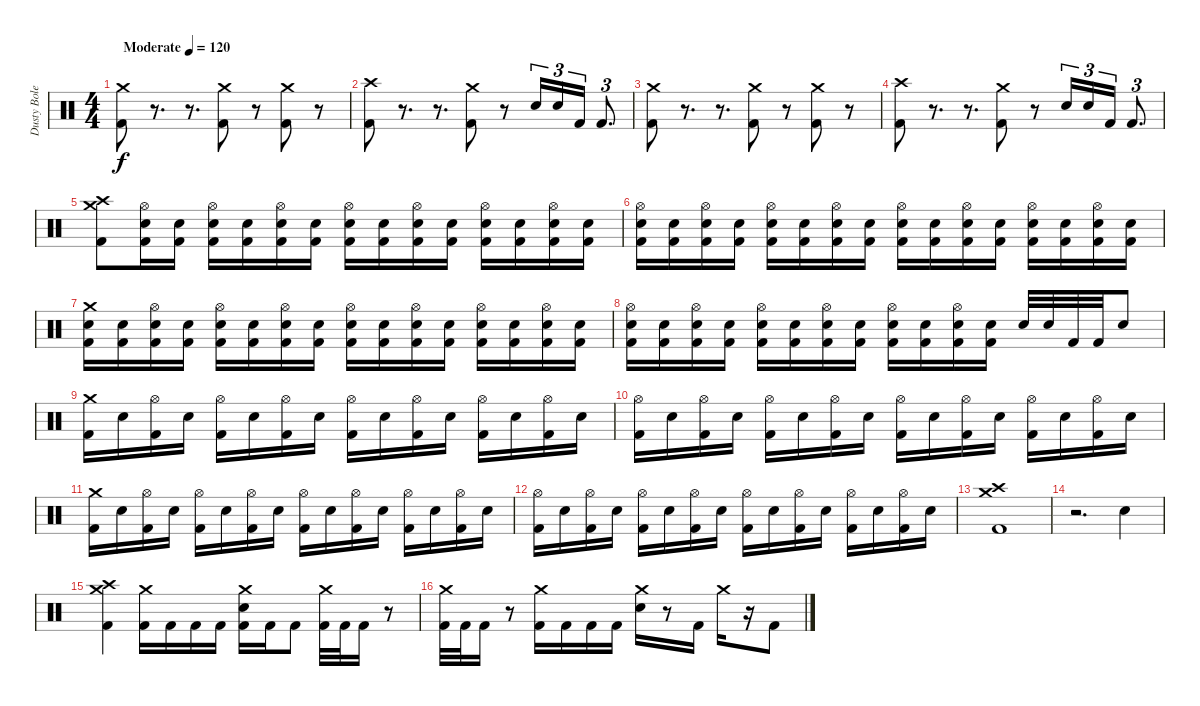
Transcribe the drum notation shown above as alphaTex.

\track ("Dusty Boles" "Dusty Bole") {instrument percussion}
\staff {score}
\articulation defaults
\ts (4 4)
\tempo (120 "Moderate")
\clef neutral
\ks c
("Crash medium (hit)" "Kick (hit) 2").8{dy f} r.8{d volume 0} r.8{d} ("Crash medium (hit)" "Kick (hit) 2").8{volume 16} r.8{volume 0} ("Crash medium (hit)" "Kick (hit) 2").8{volume 16} r.8{volume 0} |
("Crash high (hit)" "Kick (hit) 2").8{volume 16} r.8{d volume 0} r.8{d} ("Crash medium (hit)" "Kick (hit) 2").8{volume 16} r.8{volume 0} "Electric Snare (hit)".16{tu (3 2) volume 16} "Electric Snare (hit)".16{tu (3 2)} "Kick (hit) 2".16{tu (3 2)} "Kick (hit) 2".8{d tu (3 2)} |
("Crash medium (hit)" "Kick (hit) 2").8 r.8{d volume 0} r.8{d} ("Crash medium (hit)" "Kick (hit) 2").8{volume 16} r.8{volume 0} ("Crash medium (hit)" "Kick (hit) 2").8{volume 16} r.8{volume 0} |
("Crash high (hit)" "Kick (hit) 2").8{volume 16} r.8{d volume 0} r.8{d} ("Crash medium (hit)" "Kick (hit) 2").8{volume 16} r.8{volume 0} "Electric Snare (hit)".16{tu (3 2) volume 16} "Electric Snare (hit)".16{tu (3 2)} "Kick (hit) 2".16{tu (3 2)} "Kick (hit) 2".8{d tu (3 2)} |
("Crash high (hit)" "Crash medium (hit)" "Kick (hit) 2").8 ("Hi-Hat (open)" "Electric Snare (hit)" "Kick (hit) 2").16 ("Electric Snare (hit)" "Kick (hit) 2").16 ("Hi-Hat (open)" "Electric Snare (hit)" "Kick (hit) 2").16 ("Electric Snare (hit)" "Kick (hit) 2").16 ("Hi-Hat (open)" "Electric Snare (hit)" "Kick (hit) 2").16 ("Electric Snare (hit)" "Kick (hit) 2").16 ("Hi-Hat (open)" "Electric Snare (hit)" "Kick (hit) 2").16 ("Electric Snare (hit)" "Kick (hit) 2").16 ("Hi-Hat (open)" "Electric Snare (hit)" "Kick (hit) 2").16 ("Electric Snare (hit)" "Kick (hit) 2").16 ("Hi-Hat (open)" "Electric Snare (hit)" "Kick (hit) 2").16 ("Electric Snare (hit)" "Kick (hit) 2").16 ("Hi-Hat (open)" "Electric Snare (hit)" "Kick (hit) 2").16 ("Electric Snare (hit)" "Kick (hit) 2").16 |
("Hi-Hat (open)" "Electric Snare (hit)" "Kick (hit) 2").16 ("Electric Snare (hit)" "Kick (hit) 2").16 ("Hi-Hat (open)" "Electric Snare (hit)" "Kick (hit) 2").16 ("Electric Snare (hit)" "Kick (hit) 2").16 ("Hi-Hat (open)" "Electric Snare (hit)" "Kick (hit) 2").16 ("Electric Snare (hit)" "Kick (hit) 2").16 ("Hi-Hat (open)" "Electric Snare (hit)" "Kick (hit) 2").16 ("Electric Snare (hit)" "Kick (hit) 2").16 ("Hi-Hat (open)" "Electric Snare (hit)" "Kick (hit) 2").16 ("Electric Snare (hit)" "Kick (hit) 2").16 ("Hi-Hat (open)" "Electric Snare (hit)" "Kick (hit) 2").16 ("Electric Snare (hit)" "Kick (hit) 2").16 ("Hi-Hat (open)" "Electric Snare (hit)" "Kick (hit) 2").16 ("Electric Snare (hit)" "Kick (hit) 2").16 ("Hi-Hat (open)" "Electric Snare (hit)" "Kick (hit) 2").16 ("Electric Snare (hit)" "Kick (hit) 2").16 |
("Crash medium (hit)" "Electric Snare (hit)" "Kick (hit) 2").16 ("Electric Snare (hit)" "Kick (hit) 2").16 ("Hi-Hat (open)" "Electric Snare (hit)" "Kick (hit) 2").16 ("Electric Snare (hit)" "Kick (hit) 2").16 ("Hi-Hat (open)" "Electric Snare (hit)" "Kick (hit) 2").16 ("Electric Snare (hit)" "Kick (hit) 2").16 ("Hi-Hat (open)" "Electric Snare (hit)" "Kick (hit) 2").16 ("Electric Snare (hit)" "Kick (hit) 2").16 ("Hi-Hat (open)" "Electric Snare (hit)" "Kick (hit) 2").16 ("Electric Snare (hit)" "Kick (hit) 2").16 ("Hi-Hat (open)" "Electric Snare (hit)" "Kick (hit) 2").16 ("Electric Snare (hit)" "Kick (hit) 2").16 ("Hi-Hat (open)" "Electric Snare (hit)" "Kick (hit) 2").16 ("Electric Snare (hit)" "Kick (hit) 2").16 ("Hi-Hat (open)" "Electric Snare (hit)" "Kick (hit) 2").16 ("Electric Snare (hit)" "Kick (hit) 2").16 |
("Hi-Hat (open)" "Electric Snare (hit)" "Kick (hit) 2").16 ("Electric Snare (hit)" "Kick (hit) 2").16 ("Hi-Hat (open)" "Electric Snare (hit)" "Kick (hit) 2").16 ("Electric Snare (hit)" "Kick (hit) 2").16 ("Hi-Hat (open)" "Electric Snare (hit)" "Kick (hit) 2").16 ("Electric Snare (hit)" "Kick (hit) 2").16 ("Hi-Hat (open)" "Electric Snare (hit)" "Kick (hit) 2").16 ("Electric Snare (hit)" "Kick (hit) 2").16 ("Hi-Hat (open)" "Electric Snare (hit)" "Kick (hit) 2").16 ("Electric Snare (hit)" "Kick (hit) 2").16 ("Hi-Hat (open)" "Electric Snare (hit)" "Kick (hit) 2").16 ("Electric Snare (hit)" "Kick (hit) 2").16 "Electric Snare (hit)".32 "Electric Snare (hit)".32 "Kick (hit) 2".32 "Kick (hit) 2".32 "Electric Snare (hit)".8 |
("Crash medium (hit)" "Kick (hit) 2").16 "Electric Snare (hit)".16 ("Hi-Hat (open)" "Kick (hit) 2").16 "Electric Snare (hit)".16 ("Hi-Hat (open)" "Kick (hit) 2").16 "Electric Snare (hit)".16 ("Hi-Hat (open)" "Kick (hit) 2").16 "Electric Snare (hit)".16 ("Hi-Hat (open)" "Kick (hit) 2").16 "Electric Snare (hit)".16 ("Hi-Hat (open)" "Kick (hit) 2").16 "Electric Snare (hit)".16 ("Hi-Hat (open)" "Kick (hit) 2").16 "Electric Snare (hit)".16 ("Hi-Hat (open)" "Kick (hit) 2").16 "Electric Snare (hit)".16 |
("Hi-Hat (open)" "Kick (hit) 2").16 "Electric Snare (hit)".16 ("Hi-Hat (open)" "Kick (hit) 2").16 "Electric Snare (hit)".16 ("Hi-Hat (open)" "Kick (hit) 2").16 "Electric Snare (hit)".16 ("Hi-Hat (open)" "Kick (hit) 2").16 "Electric Snare (hit)".16 ("Hi-Hat (open)" "Kick (hit) 2").16 "Electric Snare (hit)".16 ("Hi-Hat (open)" "Kick (hit) 2").16 "Electric Snare (hit)".16 ("Hi-Hat (open)" "Kick (hit) 2").16 "Electric Snare (hit)".16 ("Hi-Hat (open)" "Kick (hit) 2").16 "Electric Snare (hit)".16 |
("Crash medium (hit)" "Kick (hit) 2").16 "Electric Snare (hit)".16 ("Hi-Hat (open)" "Kick (hit) 2").16 "Electric Snare (hit)".16 ("Hi-Hat (open)" "Kick (hit) 2").16 "Electric Snare (hit)".16 ("Hi-Hat (open)" "Kick (hit) 2").16 "Electric Snare (hit)".16 ("Hi-Hat (open)" "Kick (hit) 2").16 "Electric Snare (hit)".16 ("Hi-Hat (open)" "Kick (hit) 2").16 "Electric Snare (hit)".16 ("Hi-Hat (open)" "Kick (hit) 2").16 "Electric Snare (hit)".16 ("Hi-Hat (open)" "Kick (hit) 2").16 "Electric Snare (hit)".16 |
("Hi-Hat (open)" "Kick (hit) 2").16 "Electric Snare (hit)".16 ("Hi-Hat (open)" "Kick (hit) 2").16 "Electric Snare (hit)".16 ("Hi-Hat (open)" "Kick (hit) 2").16 "Electric Snare (hit)".16 ("Hi-Hat (open)" "Kick (hit) 2").16 "Electric Snare (hit)".16 ("Hi-Hat (open)" "Kick (hit) 2").16 "Electric Snare (hit)".16 ("Hi-Hat (open)" "Kick (hit) 2").16 "Electric Snare (hit)".16 ("Hi-Hat (open)" "Kick (hit) 2").16 "Electric Snare (hit)".16 ("Hi-Hat (open)" "Kick (hit) 2").16 "Electric Snare (hit)".16 |
("Crash high (hit)" "Crash medium (hit)" "Kick (hit) 2").1 |
r.2{d} "Electric Snare (hit)".4 |
("Crash high (hit)" "Crash medium (hit)" "Kick (hit) 2").4 ("Crash medium (hit)" "Kick (hit) 2").16 "Kick (hit) 2".16 "Kick (hit) 2".16 "Kick (hit) 2".16 ("Crash medium (hit)" "Electric Snare (hit)" "Kick (hit) 2").16 "Kick (hit) 2".16 "Kick (hit) 2".8 ("Crash medium (hit)" "Kick (hit) 2").32 "Kick (hit) 2".32 "Kick (hit) 2".16 r.8 |
("Crash medium (hit)" "Kick (hit) 2").32 "Kick (hit) 2".32 "Kick (hit) 2".16 r.8 ("Crash medium (hit)" "Kick (hit) 2").16 "Kick (hit) 2".16 "Kick (hit) 2".16 "Kick (hit) 2".16 ("Crash medium (hit)" "Electric Snare (hit)").16 r.8 "Kick (hit) 2".16 "Crash medium (hit)".16 r.16 "Kick (hit) 2".8
